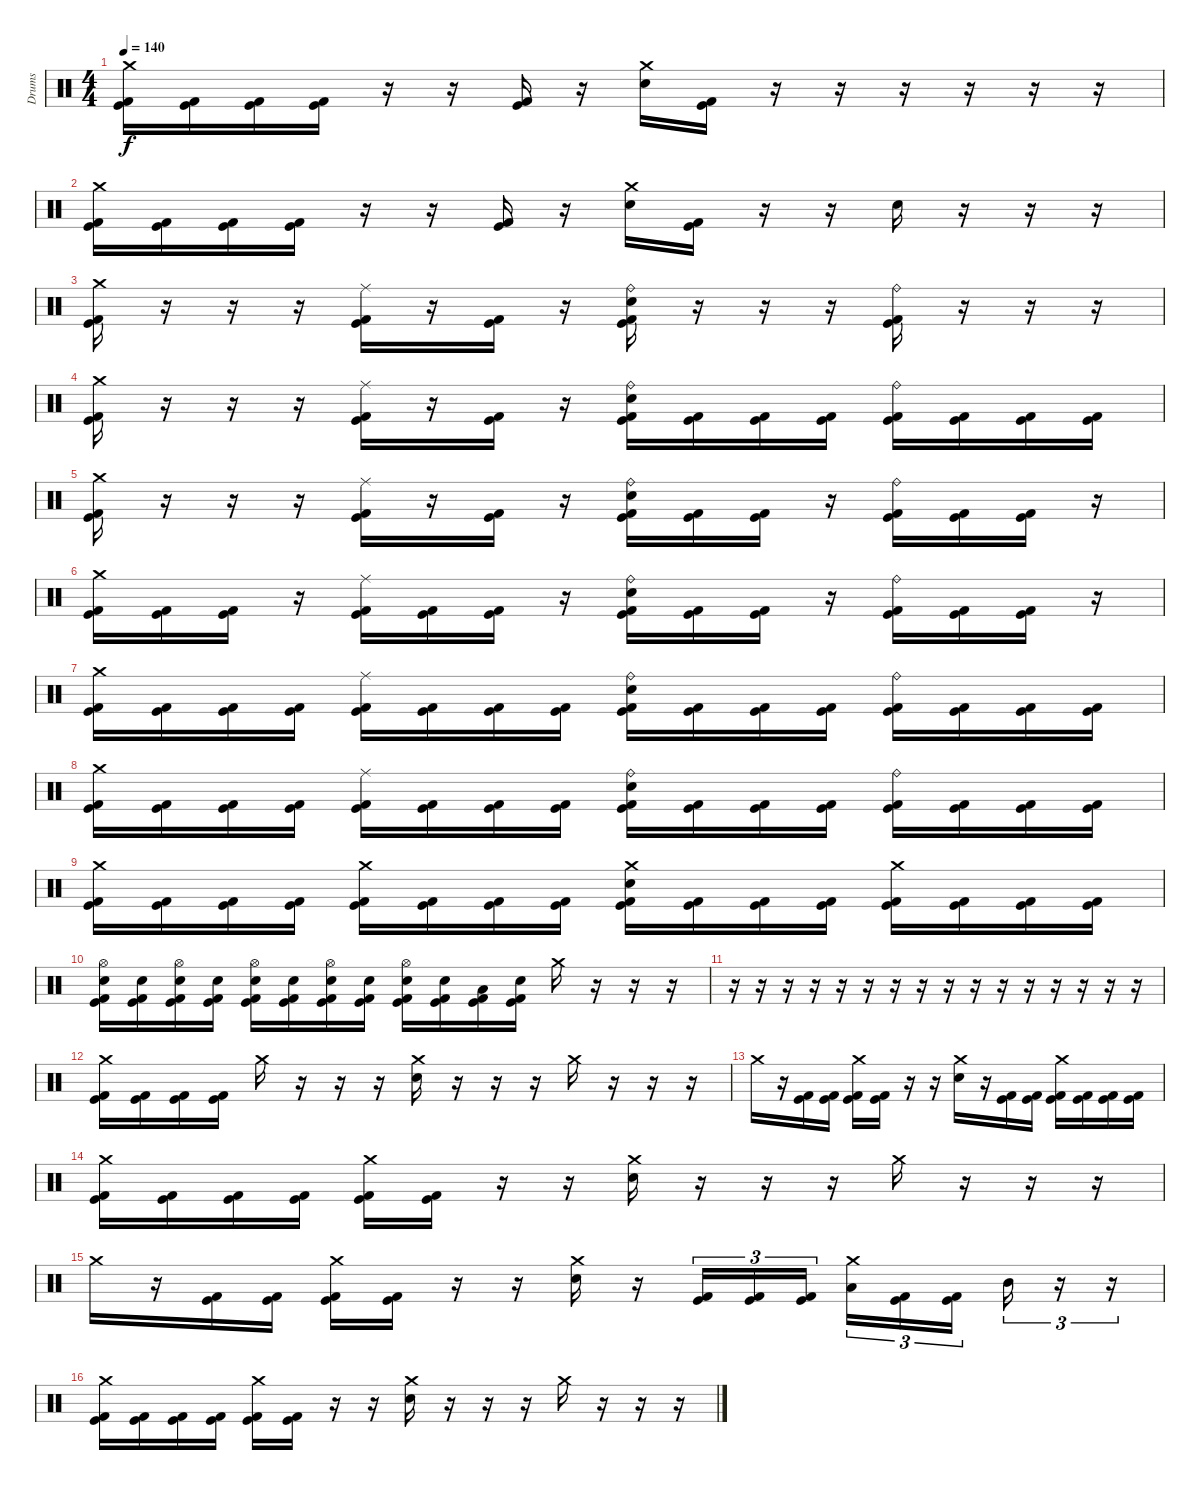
\track ("Drums" "Drums") {instrument percussion}
\staff {score}
\articulation defaults
\ts (4 4)
\tempo 140
\clef neutral
\ks c
("Crash medium (hit)" "Kick (hit)" "Kick (hit) 2").16{dy f} ("Kick (hit)" "Kick (hit) 2").16 ("Kick (hit)" "Kick (hit) 2").16 ("Kick (hit)" "Kick (hit) 2").16 r.16 r.16 ("Kick (hit)" "Kick (hit) 2").16 r.16 ("Crash medium (hit)" "Electric Snare (hit)").16 ("Kick (hit)" "Kick (hit) 2").16 r.16 r.16 r.16 r.16 r.16 r.16 |
("Crash medium (hit)" "Kick (hit)" "Kick (hit) 2").16 ("Kick (hit)" "Kick (hit) 2").16 ("Kick (hit)" "Kick (hit) 2").16 ("Kick (hit)" "Kick (hit) 2").16 r.16 r.16 ("Kick (hit)" "Kick (hit) 2").16 r.16 ("Crash medium (hit)" "Electric Snare (hit)").16 ("Kick (hit)" "Kick (hit) 2").16 r.16 r.16 "Electric Snare (hit)".16 r.16 r.16 r.16 |
("Crash medium (hit)" "Kick (hit)" "Kick (hit) 2").16 r.16 r.16 r.16 ("Ride (middle)" "Kick (hit)" "Kick (hit) 2").16 r.16 ("Kick (hit)" "Kick (hit) 2").16 r.16 ("Ride (bell)" "Electric Snare (hit)" "Kick (hit)" "Kick (hit) 2").16 r.16 r.16 r.16 ("Ride (bell)" "Kick (hit)" "Kick (hit) 2").16 r.16 r.16 r.16 |
("Crash medium (hit)" "Kick (hit)" "Kick (hit) 2").16 r.16 r.16 r.16 ("Ride (middle)" "Kick (hit)" "Kick (hit) 2").16 r.16 ("Kick (hit)" "Kick (hit) 2").16 r.16 ("Ride (bell)" "Electric Snare (hit)" "Kick (hit)" "Kick (hit) 2").16 ("Kick (hit)" "Kick (hit) 2").16 ("Kick (hit)" "Kick (hit) 2").16 ("Kick (hit)" "Kick (hit) 2").16 ("Ride (bell)" "Kick (hit)" "Kick (hit) 2").16 ("Kick (hit)" "Kick (hit) 2").16 ("Kick (hit)" "Kick (hit) 2").16 ("Kick (hit)" "Kick (hit) 2").16 |
("Crash medium (hit)" "Kick (hit)" "Kick (hit) 2").16 r.16 r.16 r.16 ("Ride (middle)" "Kick (hit)" "Kick (hit) 2").16 r.16 ("Kick (hit)" "Kick (hit) 2").16 r.16 ("Ride (bell)" "Electric Snare (hit)" "Kick (hit)" "Kick (hit) 2").16 ("Kick (hit)" "Kick (hit) 2").16 ("Kick (hit)" "Kick (hit) 2").16 r.16 ("Ride (bell)" "Kick (hit)" "Kick (hit) 2").16 ("Kick (hit)" "Kick (hit) 2").16 ("Kick (hit)" "Kick (hit) 2").16 r.16 |
("Crash medium (hit)" "Kick (hit)" "Kick (hit) 2").16 ("Kick (hit)" "Kick (hit) 2").16 ("Kick (hit)" "Kick (hit) 2").16 r.16 ("Ride (middle)" "Kick (hit)" "Kick (hit) 2").16 ("Kick (hit)" "Kick (hit) 2").16 ("Kick (hit)" "Kick (hit) 2").16 r.16 ("Ride (bell)" "Electric Snare (hit)" "Kick (hit)" "Kick (hit) 2").16 ("Kick (hit)" "Kick (hit) 2").16 ("Kick (hit)" "Kick (hit) 2").16 r.16 ("Ride (bell)" "Kick (hit)" "Kick (hit) 2").16 ("Kick (hit)" "Kick (hit) 2").16 ("Kick (hit)" "Kick (hit) 2").16 r.16 |
("Crash medium (hit)" "Kick (hit)" "Kick (hit) 2").16 ("Kick (hit)" "Kick (hit) 2").16 ("Kick (hit)" "Kick (hit) 2").16 ("Kick (hit)" "Kick (hit) 2").16 ("Ride (middle)" "Kick (hit)" "Kick (hit) 2").16 ("Kick (hit)" "Kick (hit) 2").16 ("Kick (hit)" "Kick (hit) 2").16 ("Kick (hit)" "Kick (hit) 2").16 ("Ride (bell)" "Electric Snare (hit)" "Kick (hit)" "Kick (hit) 2").16 ("Kick (hit)" "Kick (hit) 2").16 ("Kick (hit)" "Kick (hit) 2").16 ("Kick (hit)" "Kick (hit) 2").16 ("Ride (bell)" "Kick (hit)" "Kick (hit) 2").16 ("Kick (hit)" "Kick (hit) 2").16 ("Kick (hit)" "Kick (hit) 2").16 ("Kick (hit)" "Kick (hit) 2").16 |
("Crash medium (hit)" "Kick (hit)" "Kick (hit) 2").16 ("Kick (hit)" "Kick (hit) 2").16 ("Kick (hit)" "Kick (hit) 2").16 ("Kick (hit)" "Kick (hit) 2").16 ("Ride (middle)" "Kick (hit)" "Kick (hit) 2").16 ("Kick (hit)" "Kick (hit) 2").16 ("Kick (hit)" "Kick (hit) 2").16 ("Kick (hit)" "Kick (hit) 2").16 ("Ride (bell)" "Electric Snare (hit)" "Kick (hit)" "Kick (hit) 2").16 ("Kick (hit)" "Kick (hit) 2").16 ("Kick (hit)" "Kick (hit) 2").16 ("Kick (hit)" "Kick (hit) 2").16 ("Ride (bell)" "Kick (hit)" "Kick (hit) 2").16 ("Kick (hit)" "Kick (hit) 2").16 ("Kick (hit)" "Kick (hit) 2").16 ("Kick (hit)" "Kick (hit) 2").16 |
("Crash medium (hit)" "Kick (hit)" "Kick (hit) 2").16 ("Kick (hit)" "Kick (hit) 2").16 ("Kick (hit)" "Kick (hit) 2").16 ("Kick (hit)" "Kick (hit) 2").16 ("Crash medium (hit)" "Kick (hit)" "Kick (hit) 2").16 ("Kick (hit)" "Kick (hit) 2").16 ("Kick (hit)" "Kick (hit) 2").16 ("Kick (hit)" "Kick (hit) 2").16 ("Crash medium (hit)" "Electric Snare (hit)" "Kick (hit)" "Kick (hit) 2").16 ("Kick (hit)" "Kick (hit) 2").16 ("Kick (hit)" "Kick (hit) 2").16 ("Kick (hit)" "Kick (hit) 2").16 ("Crash medium (hit)" "Kick (hit)" "Kick (hit) 2").16 ("Kick (hit)" "Kick (hit) 2").16 ("Kick (hit)" "Kick (hit) 2").16 ("Kick (hit)" "Kick (hit) 2").16 |
("Hi-Hat (open)" "Electric Snare (hit)" "Kick (hit)" "Kick (hit) 2").16 ("Electric Snare (hit)" "Kick (hit)" "Kick (hit) 2").16 ("Hi-Hat (open)" "Electric Snare (hit)" "Kick (hit)" "Kick (hit) 2").16 ("Electric Snare (hit)" "Kick (hit)" "Kick (hit) 2").16 ("Hi-Hat (open)" "Electric Snare (hit)" "Kick (hit)" "Kick (hit) 2").16 ("Electric Snare (hit)" "Kick (hit)" "Kick (hit) 2").16 ("Hi-Hat (open)" "Electric Snare (hit)" "Kick (hit)" "Kick (hit) 2").16 ("Electric Snare (hit)" "Kick (hit)" "Kick (hit) 2").16 ("Hi-Hat (open)" "Electric Snare (hit)" "Kick (hit)" "Kick (hit) 2").16 ("Electric Snare (hit)" "Kick (hit)" "Kick (hit) 2").16 ("Low Tom (hit)" "Kick (hit)" "Kick (hit) 2").16 ("Electric Snare (hit)" "Kick (hit)" "Kick (hit) 2").16 "Crash medium (hit)".16 r.16 r.16 r.16 |
r.16 r.16 r.16 r.16 r.16 r.16 r.16 r.16 r.16 r.16 r.16 r.16 r.16 r.16 r.16 r.16 |
("Crash medium (hit)" "Kick (hit)" "Kick (hit) 2").16 ("Kick (hit)" "Kick (hit) 2").16 ("Kick (hit)" "Kick (hit) 2").16 ("Kick (hit)" "Kick (hit) 2").16 "Crash medium (hit)".16 r.16 r.16 r.16 ("Crash medium (hit)" "Electric Snare (hit)").16 r.16 r.16 r.16 "Crash medium (hit)".16 r.16 r.16 r.16 |
"Crash medium (hit)".16 r.16 ("Kick (hit)" "Kick (hit) 2").16 ("Kick (hit)" "Kick (hit) 2").16 ("Crash medium (hit)" "Kick (hit)" "Kick (hit) 2").16 ("Kick (hit)" "Kick (hit) 2").16 r.16 r.16 ("Crash medium (hit)" "Electric Snare (hit)").16 r.16 ("Kick (hit)" "Kick (hit) 2").16 ("Kick (hit)" "Kick (hit) 2").16 ("Crash medium (hit)" "Kick (hit)" "Kick (hit) 2").16 ("Kick (hit)" "Kick (hit) 2").16 ("Kick (hit)" "Kick (hit) 2").16 ("Kick (hit)" "Kick (hit) 2").16 |
("Crash medium (hit)" "Kick (hit)" "Kick (hit) 2").16 ("Kick (hit)" "Kick (hit) 2").16 ("Kick (hit)" "Kick (hit) 2").16 ("Kick (hit)" "Kick (hit) 2").16 ("Crash medium (hit)" "Kick (hit)" "Kick (hit) 2").16 ("Kick (hit)" "Kick (hit) 2").16 r.16 r.16 ("Crash medium (hit)" "Electric Snare (hit)").16 r.16 r.16 r.16 "Crash medium (hit)".16 r.16 r.16 r.16 |
"Crash medium (hit)".16 r.16 ("Kick (hit)" "Kick (hit) 2").16 ("Kick (hit)" "Kick (hit) 2").16 ("Crash medium (hit)" "Kick (hit)" "Kick (hit) 2").16 ("Kick (hit)" "Kick (hit) 2").16 r.16 r.16 ("Crash medium (hit)" "Electric Snare (hit)").16 r.16 ("Kick (hit)" "Kick (hit) 2").16{tu (3 2)} ("Kick (hit)" "Kick (hit) 2").16{tu (3 2)} ("Kick (hit)" "Kick (hit) 2").16{tu (3 2)} ("Crash medium (hit)" "Low Tom (hit)").16{tu (3 2)} ("Kick (hit)" "Kick (hit) 2").16{tu (3 2)} ("Kick (hit)" "Kick (hit) 2").16{tu (3 2) beam splitsecondary} "Mid Tom (hit)".16{tu (3 2)} r.16{tu (3 2)} r.16{tu (3 2)} |
("Crash medium (hit)" "Kick (hit)" "Kick (hit) 2").16 ("Kick (hit)" "Kick (hit) 2").16 ("Kick (hit)" "Kick (hit) 2").16 ("Kick (hit)" "Kick (hit) 2").16 ("Crash medium (hit)" "Kick (hit)" "Kick (hit) 2").16 ("Kick (hit)" "Kick (hit) 2").16 r.16 r.16 ("Crash medium (hit)" "Electric Snare (hit)").16 r.16 r.16 r.16 "Crash medium (hit)".16 r.16 r.16 r.16
